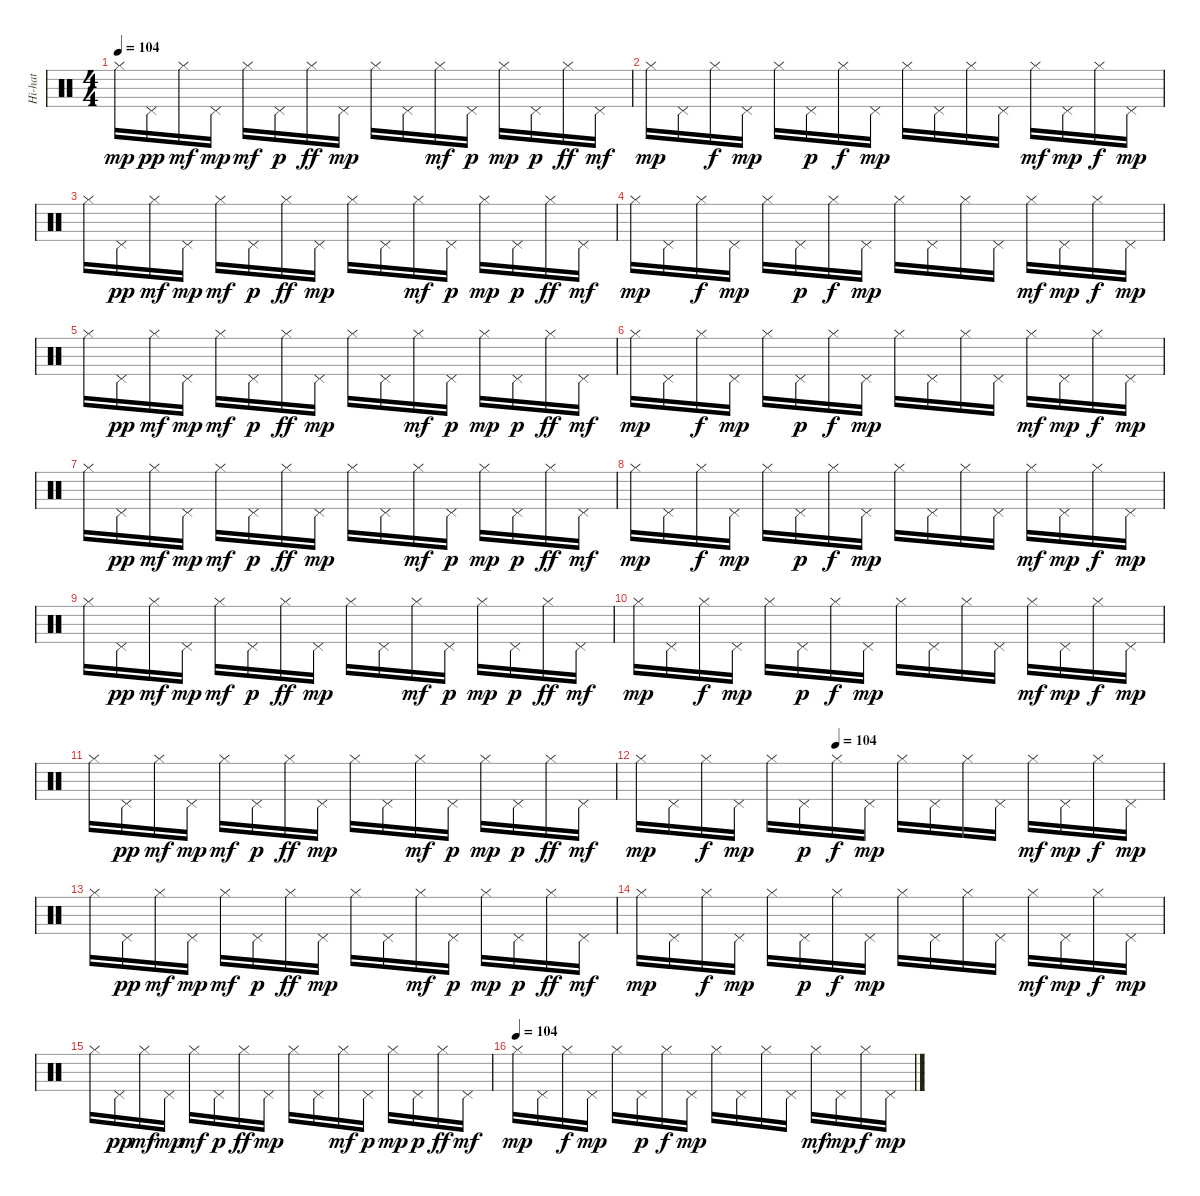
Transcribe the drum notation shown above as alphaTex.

\track ("Hi-hat" "Hi-hat") {instrument percussion}
\staff {score}
\articulation defaults
\ts (4 4)
\tempo 104
\clef neutral
\ks c "Hi-Hat (closed)".16{dy mp} "Pedal Hi-Hat (hit)".16{dy pp} "Hi-Hat (closed)".16{dy mf} "Pedal Hi-Hat (hit)".16{dy mp} "Hi-Hat (closed)".16{dy mf} "Pedal Hi-Hat (hit)".16{dy p} "Hi-Hat (closed)".16{dy ff} "Pedal Hi-Hat (hit)".16{dy mp} "Hi-Hat (closed)".16 "Pedal Hi-Hat (hit)".16 "Hi-Hat (closed)".16{dy mf} "Pedal Hi-Hat (hit)".16{dy p} "Hi-Hat (closed)".16{dy mp} "Pedal Hi-Hat (hit)".16{dy p} "Hi-Hat (closed)".16{dy ff} "Pedal Hi-Hat (hit)".16{dy mf}
|
"Hi-Hat (closed)".16{dy mp} "Pedal Hi-Hat (hit)".16 "Hi-Hat (closed)".16{dy f} "Pedal Hi-Hat (hit)".16{dy mp} "Hi-Hat (closed)".16 "Pedal Hi-Hat (hit)".16{dy p} "Hi-Hat (closed)".16{dy f} "Pedal Hi-Hat (hit)".16{dy mp} "Hi-Hat (closed)".16 "Pedal Hi-Hat (hit)".16 "Hi-Hat (closed)".16 "Pedal Hi-Hat (hit)".16 "Hi-Hat (closed)".16{dy mf} "Pedal Hi-Hat (hit)".16{dy mp} "Hi-Hat (closed)".16{dy f} "Pedal Hi-Hat (hit)".16{dy mp} |
"Hi-Hat (closed)".16 "Pedal Hi-Hat (hit)".16{dy pp} "Hi-Hat (closed)".16{dy mf} "Pedal Hi-Hat (hit)".16{dy mp} "Hi-Hat (closed)".16{dy mf} "Pedal Hi-Hat (hit)".16{dy p} "Hi-Hat (closed)".16{dy ff} "Pedal Hi-Hat (hit)".16{dy mp} "Hi-Hat (closed)".16 "Pedal Hi-Hat (hit)".16 "Hi-Hat (closed)".16{dy mf} "Pedal Hi-Hat (hit)".16{dy p} "Hi-Hat (closed)".16{dy mp} "Pedal Hi-Hat (hit)".16{dy p} "Hi-Hat (closed)".16{dy ff} "Pedal Hi-Hat (hit)".16{dy mf} |
"Hi-Hat (closed)".16{dy mp} "Pedal Hi-Hat (hit)".16 "Hi-Hat (closed)".16{dy f} "Pedal Hi-Hat (hit)".16{dy mp} "Hi-Hat (closed)".16 "Pedal Hi-Hat (hit)".16{dy p} "Hi-Hat (closed)".16{dy f} "Pedal Hi-Hat (hit)".16{dy mp} "Hi-Hat (closed)".16 "Pedal Hi-Hat (hit)".16 "Hi-Hat (closed)".16 "Pedal Hi-Hat (hit)".16 "Hi-Hat (closed)".16{dy mf} "Pedal Hi-Hat (hit)".16{dy mp} "Hi-Hat (closed)".16{dy f} "Pedal Hi-Hat (hit)".16{dy mp} |
"Hi-Hat (closed)".16 "Pedal Hi-Hat (hit)".16{dy pp} "Hi-Hat (closed)".16{dy mf} "Pedal Hi-Hat (hit)".16{dy mp} "Hi-Hat (closed)".16{dy mf} "Pedal Hi-Hat (hit)".16{dy p} "Hi-Hat (closed)".16{dy ff} "Pedal Hi-Hat (hit)".16{dy mp} "Hi-Hat (closed)".16 "Pedal Hi-Hat (hit)".16 "Hi-Hat (closed)".16{dy mf} "Pedal Hi-Hat (hit)".16{dy p} "Hi-Hat (closed)".16{dy mp} "Pedal Hi-Hat (hit)".16{dy p} "Hi-Hat (closed)".16{dy ff} "Pedal Hi-Hat (hit)".16{dy mf} |
"Hi-Hat (closed)".16{dy mp} "Pedal Hi-Hat (hit)".16 "Hi-Hat (closed)".16{dy f} "Pedal Hi-Hat (hit)".16{dy mp} "Hi-Hat (closed)".16 "Pedal Hi-Hat (hit)".16{dy p} "Hi-Hat (closed)".16{dy f} "Pedal Hi-Hat (hit)".16{dy mp} "Hi-Hat (closed)".16 "Pedal Hi-Hat (hit)".16 "Hi-Hat (closed)".16 "Pedal Hi-Hat (hit)".16 "Hi-Hat (closed)".16{dy mf} "Pedal Hi-Hat (hit)".16{dy mp} "Hi-Hat (closed)".16{dy f} "Pedal Hi-Hat (hit)".16{dy mp} |
"Hi-Hat (closed)".16 "Pedal Hi-Hat (hit)".16{dy pp} "Hi-Hat (closed)".16{dy mf} "Pedal Hi-Hat (hit)".16{dy mp} "Hi-Hat (closed)".16{dy mf} "Pedal Hi-Hat (hit)".16{dy p} "Hi-Hat (closed)".16{dy ff} "Pedal Hi-Hat (hit)".16{dy mp} "Hi-Hat (closed)".16 "Pedal Hi-Hat (hit)".16 "Hi-Hat (closed)".16{dy mf} "Pedal Hi-Hat (hit)".16{dy p} "Hi-Hat (closed)".16{dy mp} "Pedal Hi-Hat (hit)".16{dy p} "Hi-Hat (closed)".16{dy ff} "Pedal Hi-Hat (hit)".16{dy mf} |
"Hi-Hat (closed)".16{dy mp} "Pedal Hi-Hat (hit)".16 "Hi-Hat (closed)".16{dy f} "Pedal Hi-Hat (hit)".16{dy mp} "Hi-Hat (closed)".16 "Pedal Hi-Hat (hit)".16{dy p} "Hi-Hat (closed)".16{dy f} "Pedal Hi-Hat (hit)".16{dy mp} "Hi-Hat (closed)".16 "Pedal Hi-Hat (hit)".16 "Hi-Hat (closed)".16 "Pedal Hi-Hat (hit)".16 "Hi-Hat (closed)".16{dy mf} "Pedal Hi-Hat (hit)".16{dy mp} "Hi-Hat (closed)".16{dy f} "Pedal Hi-Hat (hit)".16{dy mp} |
"Hi-Hat (closed)".16 "Pedal Hi-Hat (hit)".16{dy pp} "Hi-Hat (closed)".16{dy mf} "Pedal Hi-Hat (hit)".16{dy mp} "Hi-Hat (closed)".16{dy mf} "Pedal Hi-Hat (hit)".16{dy p} "Hi-Hat (closed)".16{dy ff} "Pedal Hi-Hat (hit)".16{dy mp} "Hi-Hat (closed)".16 "Pedal Hi-Hat (hit)".16 "Hi-Hat (closed)".16{dy mf} "Pedal Hi-Hat (hit)".16{dy p} "Hi-Hat (closed)".16{dy mp} "Pedal Hi-Hat (hit)".16{dy p} "Hi-Hat (closed)".16{dy ff} "Pedal Hi-Hat (hit)".16{dy mf} |
"Hi-Hat (closed)".16{dy mp} "Pedal Hi-Hat (hit)".16 "Hi-Hat (closed)".16{dy f} "Pedal Hi-Hat (hit)".16{dy mp} "Hi-Hat (closed)".16 "Pedal Hi-Hat (hit)".16{dy p} "Hi-Hat (closed)".16{dy f} "Pedal Hi-Hat (hit)".16{dy mp} "Hi-Hat (closed)".16 "Pedal Hi-Hat (hit)".16 "Hi-Hat (closed)".16 "Pedal Hi-Hat (hit)".16 "Hi-Hat (closed)".16{dy mf} "Pedal Hi-Hat (hit)".16{dy mp} "Hi-Hat (closed)".16{dy f} "Pedal Hi-Hat (hit)".16{dy mp} |
"Hi-Hat (closed)".16 "Pedal Hi-Hat (hit)".16{dy pp} "Hi-Hat (closed)".16{dy mf} "Pedal Hi-Hat (hit)".16{dy mp} "Hi-Hat (closed)".16{dy mf} "Pedal Hi-Hat (hit)".16{dy p} "Hi-Hat (closed)".16{dy ff} "Pedal Hi-Hat (hit)".16{dy mp} "Hi-Hat (closed)".16 "Pedal Hi-Hat (hit)".16 "Hi-Hat (closed)".16{dy mf} "Pedal Hi-Hat (hit)".16{dy p} "Hi-Hat (closed)".16{dy mp} "Pedal Hi-Hat (hit)".16{dy p} "Hi-Hat (closed)".16{dy ff} "Pedal Hi-Hat (hit)".16{dy mf} |
\tempo (104 0.375)
"Hi-Hat (closed)".16{dy mp} "Pedal Hi-Hat (hit)".16 "Hi-Hat (closed)".16{dy f} "Pedal Hi-Hat (hit)".16{dy mp} "Hi-Hat (closed)".16 "Pedal Hi-Hat (hit)".16{dy p} "Hi-Hat (closed)".16{dy f} "Pedal Hi-Hat (hit)".16{dy mp} "Hi-Hat (closed)".16 "Pedal Hi-Hat (hit)".16 "Hi-Hat (closed)".16 "Pedal Hi-Hat (hit)".16 "Hi-Hat (closed)".16{dy mf} "Pedal Hi-Hat (hit)".16{dy mp} "Hi-Hat (closed)".16{dy f} "Pedal Hi-Hat (hit)".16{dy mp} |
"Hi-Hat (closed)".16 "Pedal Hi-Hat (hit)".16{dy pp} "Hi-Hat (closed)".16{dy mf} "Pedal Hi-Hat (hit)".16{dy mp} "Hi-Hat (closed)".16{dy mf} "Pedal Hi-Hat (hit)".16{dy p} "Hi-Hat (closed)".16{dy ff} "Pedal Hi-Hat (hit)".16{dy mp} "Hi-Hat (closed)".16 "Pedal Hi-Hat (hit)".16 "Hi-Hat (closed)".16{dy mf} "Pedal Hi-Hat (hit)".16{dy p} "Hi-Hat (closed)".16{dy mp} "Pedal Hi-Hat (hit)".16{dy p} "Hi-Hat (closed)".16{dy ff} "Pedal Hi-Hat (hit)".16{dy mf} |
"Hi-Hat (closed)".16{dy mp} "Pedal Hi-Hat (hit)".16 "Hi-Hat (closed)".16{dy f} "Pedal Hi-Hat (hit)".16{dy mp} "Hi-Hat (closed)".16 "Pedal Hi-Hat (hit)".16{dy p} "Hi-Hat (closed)".16{dy f} "Pedal Hi-Hat (hit)".16{dy mp} "Hi-Hat (closed)".16 "Pedal Hi-Hat (hit)".16 "Hi-Hat (closed)".16 "Pedal Hi-Hat (hit)".16 "Hi-Hat (closed)".16{dy mf} "Pedal Hi-Hat (hit)".16{dy mp} "Hi-Hat (closed)".16{dy f} "Pedal Hi-Hat (hit)".16{dy mp} |
"Hi-Hat (closed)".16 "Pedal Hi-Hat (hit)".16{dy pp} "Hi-Hat (closed)".16{dy mf} "Pedal Hi-Hat (hit)".16{dy mp} "Hi-Hat (closed)".16{dy mf} "Pedal Hi-Hat (hit)".16{dy p} "Hi-Hat (closed)".16{dy ff} "Pedal Hi-Hat (hit)".16{dy mp} "Hi-Hat (closed)".16 "Pedal Hi-Hat (hit)".16 "Hi-Hat (closed)".16{dy mf} "Pedal Hi-Hat (hit)".16{dy p} "Hi-Hat (closed)".16{dy mp} "Pedal Hi-Hat (hit)".16{dy p} "Hi-Hat (closed)".16{dy ff} "Pedal Hi-Hat (hit)".16{dy mf} |
\tempo (104)
"Hi-Hat (closed)".16{dy mp} "Pedal Hi-Hat (hit)".16 "Hi-Hat (closed)".16{dy f} "Pedal Hi-Hat (hit)".16{dy mp} "Hi-Hat (closed)".16 "Pedal Hi-Hat (hit)".16{dy p} "Hi-Hat (closed)".16{dy f} "Pedal Hi-Hat (hit)".16{dy mp} "Hi-Hat (closed)".16 "Pedal Hi-Hat (hit)".16 "Hi-Hat (closed)".16 "Pedal Hi-Hat (hit)".16 "Hi-Hat (closed)".16{dy mf} "Pedal Hi-Hat (hit)".16{dy mp} "Hi-Hat (closed)".16{dy f} "Pedal Hi-Hat (hit)".16{dy mp}
